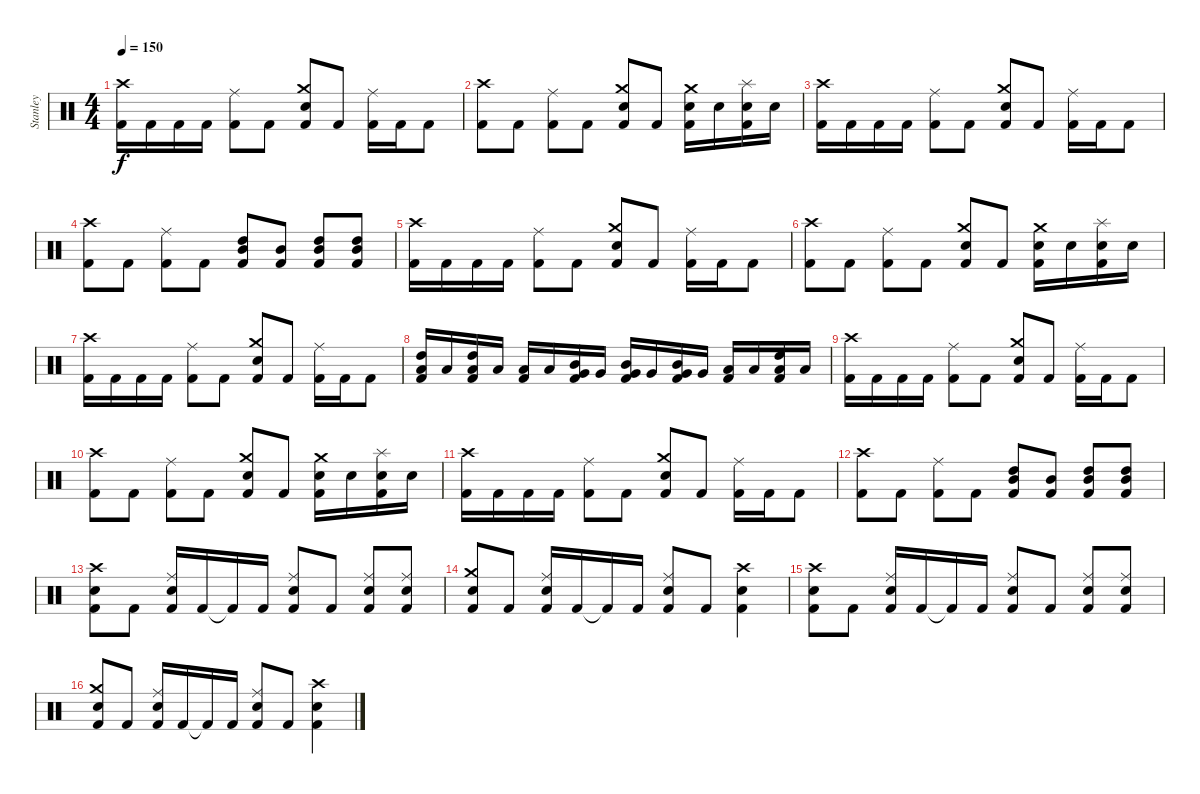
\track ("Stanley" "Stanley") {instrument percussion}
\staff {score}
\articulation defaults
\ts (4 4)
\tempo 150
\clef neutral
\ks c
("Crash high (hit)" "Kick (hit) 2").16{dy f} "Kick (hit) 2".16 "Kick (hit) 2".16 "Kick (hit) 2".16 ("Ride (middle)" "Kick (hit) 2").8 "Kick (hit) 2".8 ("Crash medium (hit)" "Electric Snare (hit)" "Kick (hit) 2").8 "Kick (hit) 2".8 ("Ride (middle)" "Kick (hit) 2").16 "Kick (hit) 2".16 "Kick (hit) 2".8 |
("Crash high (hit)" "Kick (hit) 2").8 "Kick (hit) 2".8 ("Ride (middle)" "Kick (hit) 2").8 "Kick (hit) 2".8 ("Crash medium (hit)" "Electric Snare (hit)" "Kick (hit) 2").8 "Kick (hit) 2".8 ("Crash medium (hit)" "Electric Snare (hit)" "Kick (hit) 2").16 "Electric Snare (hit)".16 ("Splash (hit)" "Electric Snare (hit)" "Kick (hit) 2").16 "Electric Snare (hit)".16 |
("Crash high (hit)" "Kick (hit) 2").16 "Kick (hit) 2".16 "Kick (hit) 2".16 "Kick (hit) 2".16 ("Ride (middle)" "Kick (hit) 2").8 "Kick (hit) 2".8 ("Crash medium (hit)" "Electric Snare (hit)" "Kick (hit) 2").8 "Kick (hit) 2".8 ("Ride (middle)" "Kick (hit) 2").16 "Kick (hit) 2".16 "Kick (hit) 2".8 |
("Crash high (hit)" "Kick (hit) 2").8 "Kick (hit) 2".8 ("Ride (middle)" "Kick (hit) 2").8 "Kick (hit) 2".8 ("Mid Tom (hit)" "High Tom (hit)" "Kick (hit) 2").8 ("Mid Tom (hit)" "Kick (hit) 2").8 ("Mid Tom (hit)" "High Tom (hit)" "Kick (hit) 2").8 ("Mid Tom (hit)" "High Tom (hit)" "Kick (hit) 2").8 |
("Crash high (hit)" "Kick (hit) 2").16 "Kick (hit) 2".16 "Kick (hit) 2".16 "Kick (hit) 2".16 ("Ride (middle)" "Kick (hit) 2").8 "Kick (hit) 2".8 ("Crash medium (hit)" "Electric Snare (hit)" "Kick (hit) 2").8 "Kick (hit) 2".8 ("Ride (middle)" "Kick (hit) 2").16 "Kick (hit) 2".16 "Kick (hit) 2".8 |
("Crash high (hit)" "Kick (hit) 2").8 "Kick (hit) 2".8 ("Ride (middle)" "Kick (hit) 2").8 "Kick (hit) 2".8 ("Crash medium (hit)" "Electric Snare (hit)" "Kick (hit) 2").8 "Kick (hit) 2".8 ("Crash medium (hit)" "Electric Snare (hit)" "Kick (hit) 2").16 "Electric Snare (hit)".16 ("Splash (hit)" "Electric Snare (hit)" "Kick (hit) 2").16 "Electric Snare (hit)".16 |
("Crash high (hit)" "Kick (hit) 2").16 "Kick (hit) 2".16 "Kick (hit) 2".16 "Kick (hit) 2".16 ("Ride (middle)" "Kick (hit) 2").8 "Kick (hit) 2".8 ("Crash medium (hit)" "Electric Snare (hit)" "Kick (hit) 2").8 "Kick (hit) 2".8 ("Ride (middle)" "Kick (hit) 2").16 "Kick (hit) 2".16 "Kick (hit) 2".8 |
("High Tom (hit)" "Low Tom (hit)" "Kick (hit) 2").16 "Low Tom (hit)".16 ("High Tom (hit)" "Low Tom (hit)" "Kick (hit) 2").16 "Low Tom (hit)".16 ("Low Tom (hit)" "Kick (hit) 2").16 "Low Tom (hit)".16 ("Mid Tom (hit)" "Very Low Tom (hit)" "Kick (hit) 2").16 "Very Low Tom (hit)".16 ("Mid Tom (hit)" "Very Low Tom (hit)" "Kick (hit) 2").16 "Very Low Tom (hit)".16 ("Mid Tom (hit)" "Very Low Tom (hit)" "Kick (hit) 2").16 "Very Low Tom (hit)".16 ("Low Floor Tom (hit)" "Kick (hit) 2").16 "Low Floor Tom (hit)".16 ("High Tom (hit)" "Low Floor Tom (hit)" "Kick (hit) 2").16 "Low Floor Tom (hit)".16 |
("Crash high (hit)" "Kick (hit) 2").16 "Kick (hit) 2".16 "Kick (hit) 2".16 "Kick (hit) 2".16 ("Ride (middle)" "Kick (hit) 2").8 "Kick (hit) 2".8 ("Crash medium (hit)" "Electric Snare (hit)" "Kick (hit) 2").8 "Kick (hit) 2".8 ("Ride (middle)" "Kick (hit) 2").16 "Kick (hit) 2".16 "Kick (hit) 2".8 |
("Crash high (hit)" "Kick (hit) 2").8 "Kick (hit) 2".8 ("Ride (middle)" "Kick (hit) 2").8 "Kick (hit) 2".8 ("Crash medium (hit)" "Electric Snare (hit)" "Kick (hit) 2").8 "Kick (hit) 2".8 ("Crash medium (hit)" "Electric Snare (hit)" "Kick (hit) 2").16 "Electric Snare (hit)".16 ("Splash (hit)" "Electric Snare (hit)" "Kick (hit) 2").16 "Electric Snare (hit)".16 |
("Crash high (hit)" "Kick (hit) 2").16 "Kick (hit) 2".16 "Kick (hit) 2".16 "Kick (hit) 2".16 ("Ride (middle)" "Kick (hit) 2").8 "Kick (hit) 2".8 ("Crash medium (hit)" "Electric Snare (hit)" "Kick (hit) 2").8 "Kick (hit) 2".8 ("Ride (middle)" "Kick (hit) 2").16 "Kick (hit) 2".16 "Kick (hit) 2".8 |
("Crash high (hit)" "Kick (hit) 2").8 "Kick (hit) 2".8 ("Ride (middle)" "Kick (hit) 2").8 "Kick (hit) 2".8 ("Mid Tom (hit)" "High Tom (hit)" "Kick (hit) 2").8 ("Mid Tom (hit)" "Kick (hit) 2").8 ("Mid Tom (hit)" "High Tom (hit)" "Kick (hit) 2").8 ("Mid Tom (hit)" "High Tom (hit)" "Kick (hit) 2").8 |
("Crash high (hit)" "Electric Snare (hit)" "Kick (hit) 2").8 "Kick (hit) 2".8 ("Ride (middle)" "Electric Snare (hit)" "Kick (hit) 2").16 "Kick (hit) 2".16 "Kick (hit) 2"{t}.16 "Kick (hit) 2".16 ("Ride (middle)" "Electric Snare (hit)" "Kick (hit) 2").8 "Kick (hit) 2".8 ("Ride (middle)" "Electric Snare (hit)" "Kick (hit) 2").8 ("Ride (middle)" "Electric Snare (hit)" "Kick (hit) 2").8 |
("Crash medium (hit)" "Electric Snare (hit)" "Kick (hit) 2").8 "Kick (hit) 2".8 ("Ride (middle)" "Electric Snare (hit)" "Kick (hit) 2").16 "Kick (hit) 2".16 "Kick (hit) 2"{t}.16 "Kick (hit) 2".16 ("Ride (middle)" "Electric Snare (hit)" "Kick (hit) 2").8 "Kick (hit) 2".8 ("Crash high (hit)" "Electric Snare (hit)" "Kick (hit) 2").4 |
("Crash high (hit)" "Electric Snare (hit)" "Kick (hit) 2").8 "Kick (hit) 2".8 ("Ride (middle)" "Electric Snare (hit)" "Kick (hit) 2").16 "Kick (hit) 2".16 "Kick (hit) 2"{t}.16 "Kick (hit) 2".16 ("Ride (middle)" "Electric Snare (hit)" "Kick (hit) 2").8 "Kick (hit) 2".8 ("Ride (middle)" "Electric Snare (hit)" "Kick (hit) 2").8 ("Ride (middle)" "Electric Snare (hit)" "Kick (hit) 2").8 |
("Crash medium (hit)" "Electric Snare (hit)" "Kick (hit) 2").8 "Kick (hit) 2".8 ("Ride (middle)" "Electric Snare (hit)" "Kick (hit) 2").16 "Kick (hit) 2".16 "Kick (hit) 2"{t}.16 "Kick (hit) 2".16 ("Ride (middle)" "Electric Snare (hit)" "Kick (hit) 2").8 "Kick (hit) 2".8 ("Crash high (hit)" "Electric Snare (hit)" "Kick (hit) 2").4
